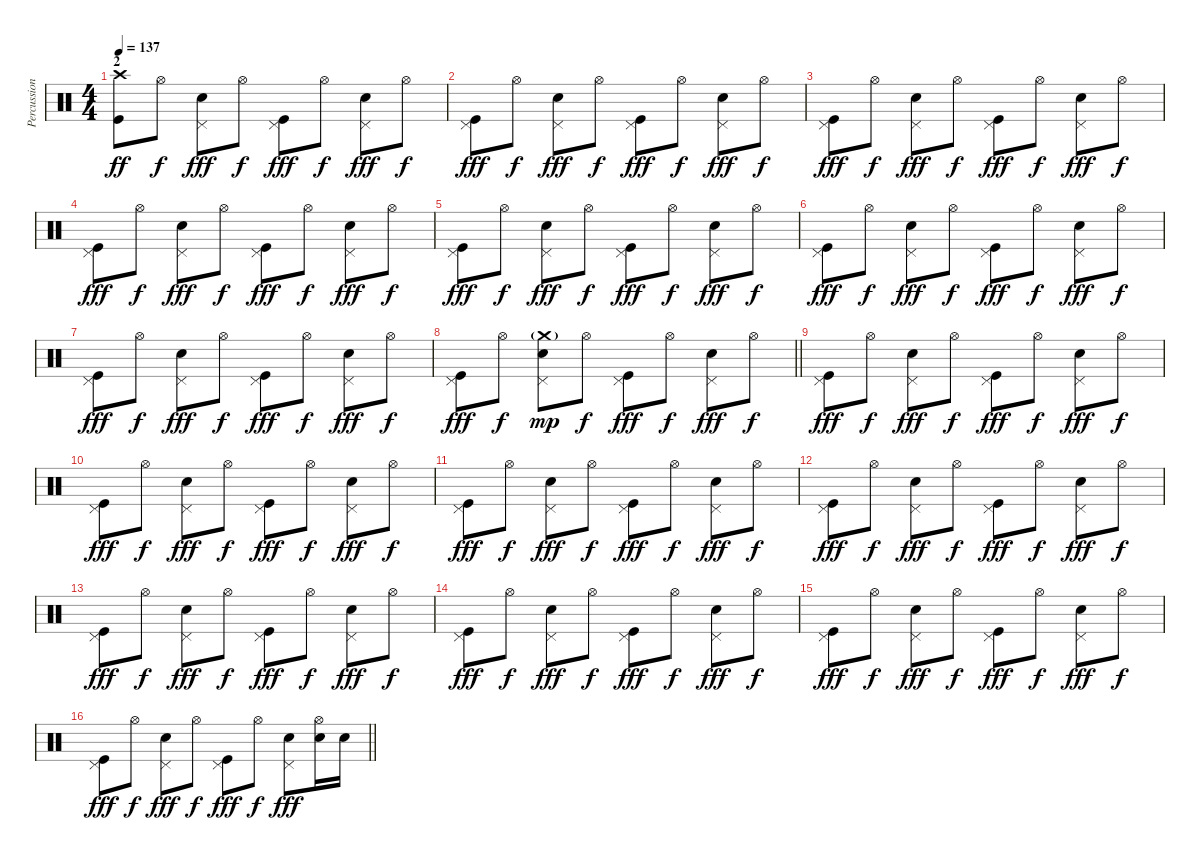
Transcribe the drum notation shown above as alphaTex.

\track ("Percussions" "Percussion") {instrument percussion}
\staff {score}
\articulation defaults
\ts (4 4)
\section ("" "2")
\tempo 137
\clef neutral
\ks c
("Kick (hit)" "Crash high (hit)").8{dy ff} "Hi-Hat (open)".8{dy f} ("Electric Snare (hit)" "Pedal Hi-Hat (hit)").8{dy fff} "Hi-Hat (open)".8{dy f} ("Kick (hit)" "Pedal Hi-Hat (hit)").8{dy fff} "Hi-Hat (open)".8{dy f} ("Electric Snare (hit)" "Pedal Hi-Hat (hit)").8{dy fff} "Hi-Hat (open)".8{dy f} |
("Kick (hit)" "Pedal Hi-Hat (hit)").8{dy fff} "Hi-Hat (open)".8{dy f} ("Electric Snare (hit)" "Pedal Hi-Hat (hit)").8{dy fff} "Hi-Hat (open)".8{dy f} ("Kick (hit)" "Pedal Hi-Hat (hit)").8{dy fff} "Hi-Hat (open)".8{dy f} ("Electric Snare (hit)" "Pedal Hi-Hat (hit)").8{dy fff} "Hi-Hat (open)".8{dy f} |
("Kick (hit)" "Pedal Hi-Hat (hit)").8{dy fff} "Hi-Hat (open)".8{dy f} ("Electric Snare (hit)" "Pedal Hi-Hat (hit)").8{dy fff} "Hi-Hat (open)".8{dy f} ("Kick (hit)" "Pedal Hi-Hat (hit)").8{dy fff} "Hi-Hat (open)".8{dy f} ("Electric Snare (hit)" "Pedal Hi-Hat (hit)").8{dy fff} "Hi-Hat (open)".8{dy f} |
("Kick (hit)" "Pedal Hi-Hat (hit)").8{dy fff} "Hi-Hat (open)".8{dy f} ("Electric Snare (hit)" "Pedal Hi-Hat (hit)").8{dy fff} "Hi-Hat (open)".8{dy f} ("Kick (hit)" "Pedal Hi-Hat (hit)").8{dy fff} "Hi-Hat (open)".8{dy f} ("Electric Snare (hit)" "Pedal Hi-Hat (hit)").8{dy fff} "Hi-Hat (open)".8{dy f} |
("Kick (hit)" "Pedal Hi-Hat (hit)").8{dy fff} "Hi-Hat (open)".8{dy f} ("Electric Snare (hit)" "Pedal Hi-Hat (hit)").8{dy fff} "Hi-Hat (open)".8{dy f} ("Kick (hit)" "Pedal Hi-Hat (hit)").8{dy fff} "Hi-Hat (open)".8{dy f} ("Electric Snare (hit)" "Pedal Hi-Hat (hit)").8{dy fff} "Hi-Hat (open)".8{dy f} |
("Kick (hit)" "Pedal Hi-Hat (hit)").8{dy fff} "Hi-Hat (open)".8{dy f} ("Electric Snare (hit)" "Pedal Hi-Hat (hit)").8{dy fff} "Hi-Hat (open)".8{dy f} ("Kick (hit)" "Pedal Hi-Hat (hit)").8{dy fff} "Hi-Hat (open)".8{dy f} ("Electric Snare (hit)" "Pedal Hi-Hat (hit)").8{dy fff} "Hi-Hat (open)".8{dy f} |
("Kick (hit)" "Pedal Hi-Hat (hit)").8{dy fff} "Hi-Hat (open)".8{dy f} ("Electric Snare (hit)" "Pedal Hi-Hat (hit)").8{dy fff} "Hi-Hat (open)".8{dy f} ("Kick (hit)" "Pedal Hi-Hat (hit)").8{dy fff} "Hi-Hat (open)".8{dy f} ("Electric Snare (hit)" "Pedal Hi-Hat (hit)").8{dy fff} "Hi-Hat (open)".8{dy f} |
\barLineRight lightlight
("Kick (hit)" "Pedal Hi-Hat (hit)").8{dy fff} "Hi-Hat (open)".8{dy f} ("Electric Snare (hit)" "Pedal Hi-Hat (hit)" "Crash medium (hit)"{g}).8{dy mp} "Hi-Hat (open)".8{dy f} ("Kick (hit)" "Pedal Hi-Hat (hit)").8{dy fff} "Hi-Hat (open)".8{dy f} ("Electric Snare (hit)" "Pedal Hi-Hat (hit)").8{dy fff} "Hi-Hat (open)".8{dy f} |
("Kick (hit)" "Pedal Hi-Hat (hit)").8{dy fff} "Hi-Hat (open)".8{dy f} ("Electric Snare (hit)" "Pedal Hi-Hat (hit)").8{dy fff} "Hi-Hat (open)".8{dy f} ("Kick (hit)" "Pedal Hi-Hat (hit)").8{dy fff} "Hi-Hat (open)".8{dy f} ("Electric Snare (hit)" "Pedal Hi-Hat (hit)").8{dy fff} "Hi-Hat (open)".8{dy f} |
("Kick (hit)" "Pedal Hi-Hat (hit)").8{dy fff} "Hi-Hat (open)".8{dy f} ("Electric Snare (hit)" "Pedal Hi-Hat (hit)").8{dy fff} "Hi-Hat (open)".8{dy f} ("Kick (hit)" "Pedal Hi-Hat (hit)").8{dy fff} "Hi-Hat (open)".8{dy f} ("Electric Snare (hit)" "Pedal Hi-Hat (hit)").8{dy fff} "Hi-Hat (open)".8{dy f} |
("Kick (hit)" "Pedal Hi-Hat (hit)").8{dy fff} "Hi-Hat (open)".8{dy f} ("Electric Snare (hit)" "Pedal Hi-Hat (hit)").8{dy fff} "Hi-Hat (open)".8{dy f} ("Kick (hit)" "Pedal Hi-Hat (hit)").8{dy fff} "Hi-Hat (open)".8{dy f} ("Electric Snare (hit)" "Pedal Hi-Hat (hit)").8{dy fff} "Hi-Hat (open)".8{dy f} |
("Kick (hit)" "Pedal Hi-Hat (hit)").8{dy fff} "Hi-Hat (open)".8{dy f} ("Electric Snare (hit)" "Pedal Hi-Hat (hit)").8{dy fff} "Hi-Hat (open)".8{dy f} ("Kick (hit)" "Pedal Hi-Hat (hit)").8{dy fff} "Hi-Hat (open)".8{dy f} ("Electric Snare (hit)" "Pedal Hi-Hat (hit)").8{dy fff} "Hi-Hat (open)".8{dy f} |
("Kick (hit)" "Pedal Hi-Hat (hit)").8{dy fff} "Hi-Hat (open)".8{dy f} ("Electric Snare (hit)" "Pedal Hi-Hat (hit)").8{dy fff} "Hi-Hat (open)".8{dy f} ("Kick (hit)" "Pedal Hi-Hat (hit)").8{dy fff} "Hi-Hat (open)".8{dy f} ("Electric Snare (hit)" "Pedal Hi-Hat (hit)").8{dy fff} "Hi-Hat (open)".8{dy f} |
("Kick (hit)" "Pedal Hi-Hat (hit)").8{dy fff} "Hi-Hat (open)".8{dy f} ("Electric Snare (hit)" "Pedal Hi-Hat (hit)").8{dy fff} "Hi-Hat (open)".8{dy f} ("Kick (hit)" "Pedal Hi-Hat (hit)").8{dy fff} "Hi-Hat (open)".8{dy f} ("Electric Snare (hit)" "Pedal Hi-Hat (hit)").8{dy fff} "Hi-Hat (open)".8{dy f} |
("Kick (hit)" "Pedal Hi-Hat (hit)").8{dy fff} "Hi-Hat (open)".8{dy f} ("Electric Snare (hit)" "Pedal Hi-Hat (hit)").8{dy fff} "Hi-Hat (open)".8{dy f} ("Kick (hit)" "Pedal Hi-Hat (hit)").8{dy fff} "Hi-Hat (open)".8{dy f} ("Electric Snare (hit)" "Pedal Hi-Hat (hit)").8{dy fff} "Hi-Hat (open)".8{dy f} |
\barLineRight lightlight
("Kick (hit)" "Pedal Hi-Hat (hit)").8{dy fff} "Hi-Hat (open)".8{dy f} ("Electric Snare (hit)" "Pedal Hi-Hat (hit)").8{dy fff} "Hi-Hat (open)".8{dy f} ("Kick (hit)" "Pedal Hi-Hat (hit)").8{dy fff} "Hi-Hat (open)".8{dy f} ("Electric Snare (hit)" "Pedal Hi-Hat (hit)").8{dy fff} ("Electric Snare (hit)" "Hi-Hat (open)").16 "Electric Snare (hit)".16
